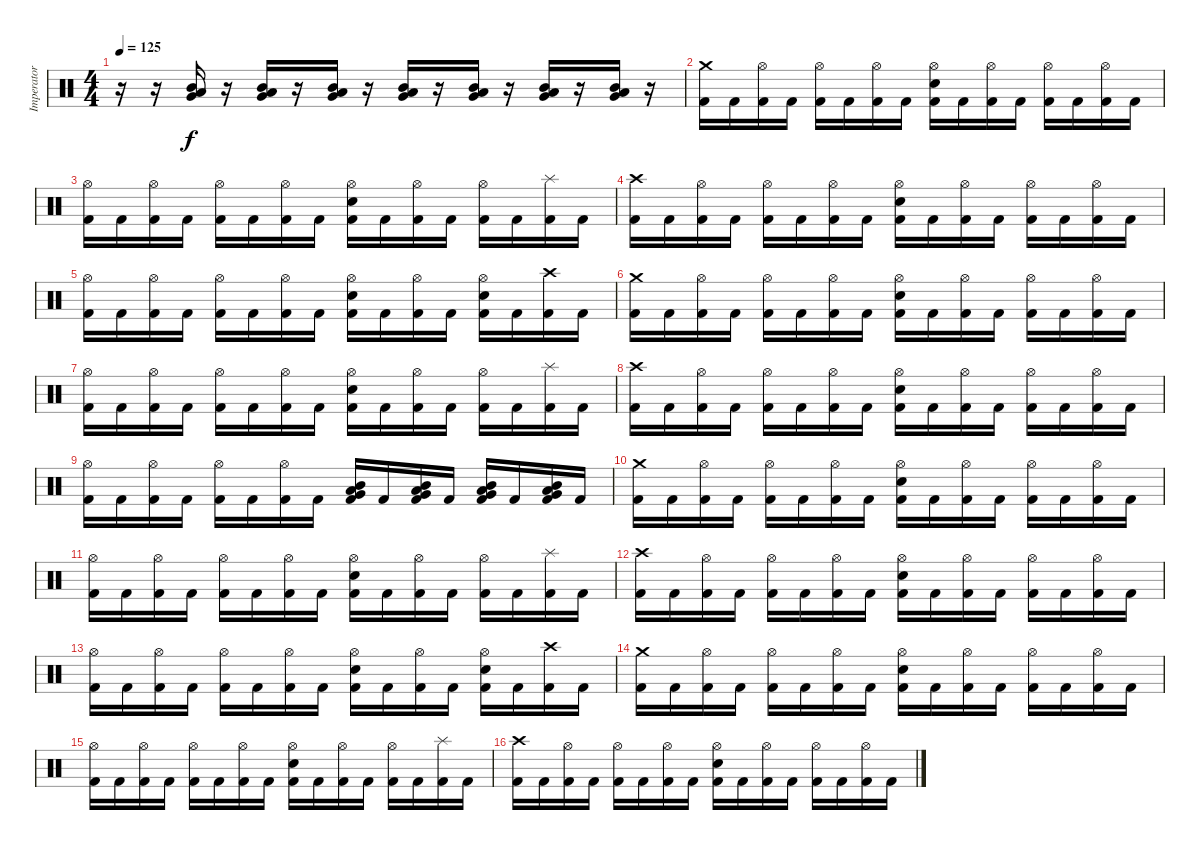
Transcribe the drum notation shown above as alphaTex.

\track ("Imperator" "Imperator") {instrument percussion}
\staff {score}
\articulation defaults
\ts (4 4)
\tempo 125
\clef neutral
\ks c
r.16{dy f} r.16 ("Low Tom (hit)" "Very Low Tom (hit)" "Mid Tom (hit)").16 r.16 ("Low Tom (hit)" "Very Low Tom (hit)" "Mid Tom (hit)").16 r.16 ("Low Tom (hit)" "Very Low Tom (hit)" "Mid Tom (hit)").16 r.16 ("Low Tom (hit)" "Very Low Tom (hit)" "Mid Tom (hit)").16 r.16 ("Low Tom (hit)" "Very Low Tom (hit)" "Mid Tom (hit)").16 r.16 ("Low Tom (hit)" "Very Low Tom (hit)" "Mid Tom (hit)").16 r.16 ("Low Tom (hit)" "Very Low Tom (hit)" "Mid Tom (hit)").16 r.16 |
("Crash medium (hit)" "Kick (hit) 2").16 "Kick (hit) 2".16 ("Hi-Hat (open)" "Kick (hit) 2").16 "Kick (hit) 2".16 ("Hi-Hat (open)" "Kick (hit) 2").16 "Kick (hit) 2".16 ("Hi-Hat (open)" "Kick (hit) 2").16 "Kick (hit) 2".16 ("Hi-Hat (open)" "Snare (hit) 2" "Kick (hit) 2").16 "Kick (hit) 2".16 ("Hi-Hat (open)" "Kick (hit) 2").16 "Kick (hit) 2".16 ("Hi-Hat (open)" "Kick (hit) 2").16 "Kick (hit) 2".16 ("Hi-Hat (open)" "Kick (hit) 2").16 "Kick (hit) 2".16 |
("Hi-Hat (open)" "Kick (hit) 2").16 "Kick (hit) 2".16 ("Hi-Hat (open)" "Kick (hit) 2").16 "Kick (hit) 2".16 ("Hi-Hat (open)" "Kick (hit) 2").16 "Kick (hit) 2".16 ("Hi-Hat (open)" "Kick (hit) 2").16 "Kick (hit) 2".16 ("Hi-Hat (open)" "Snare (hit) 2" "Kick (hit) 2").16 "Kick (hit) 2".16 ("Hi-Hat (open)" "Kick (hit) 2").16 "Kick (hit) 2".16 ("Hi-Hat (open)" "Kick (hit) 2").16 "Kick (hit) 2".16 ("Splash (hit)" "Kick (hit) 2").16 "Kick (hit) 2".16 |
("Crash high (hit)" "Kick (hit) 2").16 "Kick (hit) 2".16 ("Hi-Hat (open)" "Kick (hit) 2").16 "Kick (hit) 2".16 ("Hi-Hat (open)" "Kick (hit) 2").16 "Kick (hit) 2".16 ("Hi-Hat (open)" "Kick (hit) 2").16 "Kick (hit) 2".16 ("Hi-Hat (open)" "Snare (hit) 2" "Kick (hit) 2").16 "Kick (hit) 2".16 ("Hi-Hat (open)" "Kick (hit) 2").16 "Kick (hit) 2".16 ("Hi-Hat (open)" "Kick (hit) 2").16 "Kick (hit) 2".16 ("Hi-Hat (open)" "Kick (hit) 2").16 "Kick (hit) 2".16 |
("Hi-Hat (open)" "Kick (hit) 2").16 "Kick (hit) 2".16 ("Hi-Hat (open)" "Kick (hit) 2").16 "Kick (hit) 2".16 ("Hi-Hat (open)" "Kick (hit) 2").16 "Kick (hit) 2".16 ("Hi-Hat (open)" "Kick (hit) 2").16 "Kick (hit) 2".16 ("Hi-Hat (open)" "Snare (hit) 2" "Kick (hit) 2").16 "Kick (hit) 2".16 ("Hi-Hat (open)" "Kick (hit) 2").16 "Kick (hit) 2".16 ("Hi-Hat (open)" "Snare (hit) 2" "Kick (hit) 2").16 "Kick (hit) 2".16 ("Crash high (hit)" "Kick (hit) 2").16 "Kick (hit) 2".16 |
("Crash medium (hit)" "Kick (hit) 2").16 "Kick (hit) 2".16 ("Hi-Hat (open)" "Kick (hit) 2").16 "Kick (hit) 2".16 ("Hi-Hat (open)" "Kick (hit) 2").16 "Kick (hit) 2".16 ("Hi-Hat (open)" "Kick (hit) 2").16 "Kick (hit) 2".16 ("Hi-Hat (open)" "Snare (hit) 2" "Kick (hit) 2").16 "Kick (hit) 2".16 ("Hi-Hat (open)" "Kick (hit) 2").16 "Kick (hit) 2".16 ("Hi-Hat (open)" "Kick (hit) 2").16 "Kick (hit) 2".16 ("Hi-Hat (open)" "Kick (hit) 2").16 "Kick (hit) 2".16 |
("Hi-Hat (open)" "Kick (hit) 2").16 "Kick (hit) 2".16 ("Hi-Hat (open)" "Kick (hit) 2").16 "Kick (hit) 2".16 ("Hi-Hat (open)" "Kick (hit) 2").16 "Kick (hit) 2".16 ("Hi-Hat (open)" "Kick (hit) 2").16 "Kick (hit) 2".16 ("Hi-Hat (open)" "Snare (hit) 2" "Kick (hit) 2").16 "Kick (hit) 2".16 ("Hi-Hat (open)" "Kick (hit) 2").16 "Kick (hit) 2".16 ("Hi-Hat (open)" "Kick (hit) 2").16 "Kick (hit) 2".16 ("Splash (hit)" "Kick (hit) 2").16 "Kick (hit) 2".16 |
("Crash high (hit)" "Kick (hit) 2").16 "Kick (hit) 2".16 ("Hi-Hat (open)" "Kick (hit) 2").16 "Kick (hit) 2".16 ("Hi-Hat (open)" "Kick (hit) 2").16 "Kick (hit) 2".16 ("Hi-Hat (open)" "Kick (hit) 2").16 "Kick (hit) 2".16 ("Hi-Hat (open)" "Snare (hit) 2" "Kick (hit) 2").16 "Kick (hit) 2".16 ("Hi-Hat (open)" "Kick (hit) 2").16 "Kick (hit) 2".16 ("Hi-Hat (open)" "Kick (hit) 2").16 "Kick (hit) 2".16 ("Hi-Hat (open)" "Kick (hit) 2").16 "Kick (hit) 2".16 |
("Hi-Hat (open)" "Kick (hit) 2").16 "Kick (hit) 2".16 ("Hi-Hat (open)" "Kick (hit) 2").16 "Kick (hit) 2".16 ("Hi-Hat (open)" "Kick (hit) 2").16 "Kick (hit) 2".16 ("Hi-Hat (open)" "Kick (hit) 2").16 "Kick (hit) 2".16 ("Low Tom (hit)" "Mid Tom (hit)" "Very Low Tom (hit)" "Kick (hit) 2").16 "Kick (hit) 2".16 ("Low Tom (hit)" "Mid Tom (hit)" "Very Low Tom (hit)" "Kick (hit) 2").16 "Kick (hit) 2".16 ("Low Tom (hit)" "Mid Tom (hit)" "Very Low Tom (hit)" "Kick (hit) 2").16 "Kick (hit) 2".16 ("Low Tom (hit)" "Mid Tom (hit)" "Very Low Tom (hit)" "Kick (hit) 2").16 "Kick (hit) 2".16 |
("Crash medium (hit)" "Kick (hit) 2").16 "Kick (hit) 2".16 ("Hi-Hat (open)" "Kick (hit) 2").16 "Kick (hit) 2".16 ("Hi-Hat (open)" "Kick (hit) 2").16 "Kick (hit) 2".16 ("Hi-Hat (open)" "Kick (hit) 2").16 "Kick (hit) 2".16 ("Hi-Hat (open)" "Snare (hit) 2" "Kick (hit) 2").16 "Kick (hit) 2".16 ("Hi-Hat (open)" "Kick (hit) 2").16 "Kick (hit) 2".16 ("Hi-Hat (open)" "Kick (hit) 2").16 "Kick (hit) 2".16 ("Hi-Hat (open)" "Kick (hit) 2").16 "Kick (hit) 2".16 |
("Hi-Hat (open)" "Kick (hit) 2").16 "Kick (hit) 2".16 ("Hi-Hat (open)" "Kick (hit) 2").16 "Kick (hit) 2".16 ("Hi-Hat (open)" "Kick (hit) 2").16 "Kick (hit) 2".16 ("Hi-Hat (open)" "Kick (hit) 2").16 "Kick (hit) 2".16 ("Hi-Hat (open)" "Snare (hit) 2" "Kick (hit) 2").16 "Kick (hit) 2".16 ("Hi-Hat (open)" "Kick (hit) 2").16 "Kick (hit) 2".16 ("Hi-Hat (open)" "Kick (hit) 2").16 "Kick (hit) 2".16 ("Splash (hit)" "Kick (hit) 2").16 "Kick (hit) 2".16 |
("Crash high (hit)" "Kick (hit) 2").16 "Kick (hit) 2".16 ("Hi-Hat (open)" "Kick (hit) 2").16 "Kick (hit) 2".16 ("Hi-Hat (open)" "Kick (hit) 2").16 "Kick (hit) 2".16 ("Hi-Hat (open)" "Kick (hit) 2").16 "Kick (hit) 2".16 ("Hi-Hat (open)" "Snare (hit) 2" "Kick (hit) 2").16 "Kick (hit) 2".16 ("Hi-Hat (open)" "Kick (hit) 2").16 "Kick (hit) 2".16 ("Hi-Hat (open)" "Kick (hit) 2").16 "Kick (hit) 2".16 ("Hi-Hat (open)" "Kick (hit) 2").16 "Kick (hit) 2".16 |
("Hi-Hat (open)" "Kick (hit) 2").16 "Kick (hit) 2".16 ("Hi-Hat (open)" "Kick (hit) 2").16 "Kick (hit) 2".16 ("Hi-Hat (open)" "Kick (hit) 2").16 "Kick (hit) 2".16 ("Hi-Hat (open)" "Kick (hit) 2").16 "Kick (hit) 2".16 ("Hi-Hat (open)" "Snare (hit) 2" "Kick (hit) 2").16 "Kick (hit) 2".16 ("Hi-Hat (open)" "Kick (hit) 2").16 "Kick (hit) 2".16 ("Hi-Hat (open)" "Snare (hit) 2" "Kick (hit) 2").16 "Kick (hit) 2".16 ("Crash high (hit)" "Kick (hit) 2").16 "Kick (hit) 2".16 |
("Crash medium (hit)" "Kick (hit) 2").16 "Kick (hit) 2".16 ("Hi-Hat (open)" "Kick (hit) 2").16 "Kick (hit) 2".16 ("Hi-Hat (open)" "Kick (hit) 2").16 "Kick (hit) 2".16 ("Hi-Hat (open)" "Kick (hit) 2").16 "Kick (hit) 2".16 ("Hi-Hat (open)" "Snare (hit) 2" "Kick (hit) 2").16 "Kick (hit) 2".16 ("Hi-Hat (open)" "Kick (hit) 2").16 "Kick (hit) 2".16 ("Hi-Hat (open)" "Kick (hit) 2").16 "Kick (hit) 2".16 ("Hi-Hat (open)" "Kick (hit) 2").16 "Kick (hit) 2".16 |
("Hi-Hat (open)" "Kick (hit) 2").16 "Kick (hit) 2".16 ("Hi-Hat (open)" "Kick (hit) 2").16 "Kick (hit) 2".16 ("Hi-Hat (open)" "Kick (hit) 2").16 "Kick (hit) 2".16 ("Hi-Hat (open)" "Kick (hit) 2").16 "Kick (hit) 2".16 ("Hi-Hat (open)" "Snare (hit) 2" "Kick (hit) 2").16 "Kick (hit) 2".16 ("Hi-Hat (open)" "Kick (hit) 2").16 "Kick (hit) 2".16 ("Hi-Hat (open)" "Kick (hit) 2").16 "Kick (hit) 2".16 ("Splash (hit)" "Kick (hit) 2").16 "Kick (hit) 2".16 |
("Crash high (hit)" "Kick (hit) 2").16 "Kick (hit) 2".16 ("Hi-Hat (open)" "Kick (hit) 2").16 "Kick (hit) 2".16 ("Hi-Hat (open)" "Kick (hit) 2").16 "Kick (hit) 2".16 ("Hi-Hat (open)" "Kick (hit) 2").16 "Kick (hit) 2".16 ("Hi-Hat (open)" "Snare (hit) 2" "Kick (hit) 2").16 "Kick (hit) 2".16 ("Hi-Hat (open)" "Kick (hit) 2").16 "Kick (hit) 2".16 ("Hi-Hat (open)" "Kick (hit) 2").16 "Kick (hit) 2".16 ("Hi-Hat (open)" "Kick (hit) 2").16 "Kick (hit) 2".16
